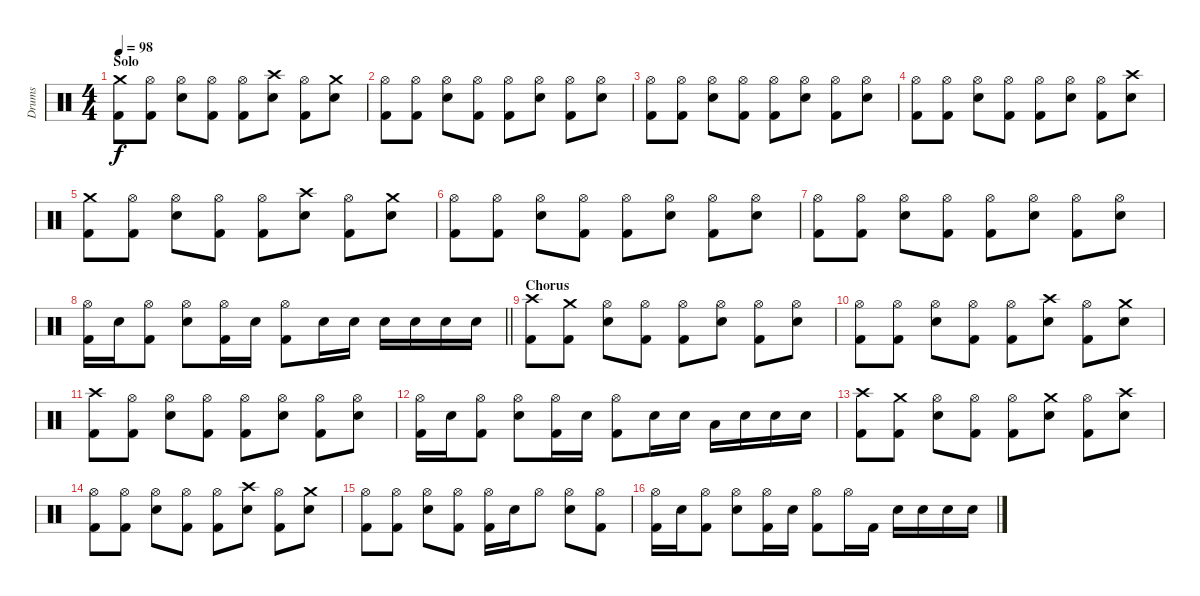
\track ("Drums" "Drums") {instrument percussion}
\staff
\articulation defaults
\ts (4 4)
\section ("" "Solo")
\tempo 98
\clef neutral
\ks c
("Crash medium (hit)" "Kick (hit) 2").8{dy f} ("Hi-Hat (open)" "Kick (hit) 2").8 ("Hi-Hat (open)" "Snare (hit) 2").8 ("Hi-Hat (open)" "Kick (hit) 2").8 ("Hi-Hat (open)" "Kick (hit) 2").8 ("Crash high (hit)" "Snare (hit) 2").8 ("Hi-Hat (open)" "Kick (hit) 2").8 ("Crash medium (hit)" "Snare (hit) 2").8 |
("Hi-Hat (open)" "Kick (hit) 2").8 ("Hi-Hat (open)" "Kick (hit) 2").8 ("Hi-Hat (open)" "Snare (hit) 2").8 ("Hi-Hat (open)" "Kick (hit) 2").8 ("Hi-Hat (open)" "Kick (hit) 2").8 ("Hi-Hat (open)" "Snare (hit) 2").8 ("Hi-Hat (open)" "Kick (hit) 2").8 ("Hi-Hat (open)" "Snare (hit) 2").8 |
("Hi-Hat (open)" "Kick (hit) 2").8 ("Hi-Hat (open)" "Kick (hit) 2").8 ("Hi-Hat (open)" "Snare (hit) 2").8 ("Hi-Hat (open)" "Kick (hit) 2").8 ("Hi-Hat (open)" "Kick (hit) 2").8 ("Hi-Hat (open)" "Snare (hit) 2").8 ("Hi-Hat (open)" "Kick (hit) 2").8 ("Hi-Hat (open)" "Snare (hit) 2").8 |
("Hi-Hat (open)" "Kick (hit) 2").8 ("Hi-Hat (open)" "Kick (hit) 2").8 ("Hi-Hat (open)" "Snare (hit) 2").8 ("Hi-Hat (open)" "Kick (hit) 2").8 ("Hi-Hat (open)" "Kick (hit) 2").8 ("Hi-Hat (open)" "Snare (hit) 2").8 ("Hi-Hat (open)" "Kick (hit) 2").8 ("Crash high (hit)" "Snare (hit) 2").8 |
("Crash medium (hit)" "Kick (hit) 2").8 ("Hi-Hat (open)" "Kick (hit) 2").8 ("Hi-Hat (open)" "Snare (hit) 2").8 ("Hi-Hat (open)" "Kick (hit) 2").8 ("Hi-Hat (open)" "Kick (hit) 2").8 ("Crash high (hit)" "Snare (hit) 2").8 ("Hi-Hat (open)" "Kick (hit) 2").8 ("Crash medium (hit)" "Snare (hit) 2").8 |
("Hi-Hat (open)" "Kick (hit) 2").8 ("Hi-Hat (open)" "Kick (hit) 2").8 ("Hi-Hat (open)" "Snare (hit) 2").8 ("Hi-Hat (open)" "Kick (hit) 2").8 ("Hi-Hat (open)" "Kick (hit) 2").8 ("Hi-Hat (open)" "Snare (hit) 2").8 ("Hi-Hat (open)" "Kick (hit) 2").8 ("Hi-Hat (open)" "Snare (hit) 2").8 |
("Hi-Hat (open)" "Kick (hit) 2").8 ("Hi-Hat (open)" "Kick (hit) 2").8 ("Hi-Hat (open)" "Snare (hit) 2").8 ("Hi-Hat (open)" "Kick (hit) 2").8 ("Hi-Hat (open)" "Kick (hit) 2").8 ("Hi-Hat (open)" "Snare (hit) 2").8 ("Hi-Hat (open)" "Kick (hit) 2").8 ("Hi-Hat (open)" "Snare (hit) 2").8 |
\barLineRight lightlight
("Hi-Hat (open)" "Kick (hit) 2").16 "Snare (hit) 2".16 ("Hi-Hat (open)" "Kick (hit) 2").8 ("Hi-Hat (open)" "Snare (hit) 2").8 ("Hi-Hat (open)" "Kick (hit) 2").16 "Snare (hit) 2".16 ("Hi-Hat (open)" "Kick (hit) 2").8 "Snare (hit) 2".16 "Snare (hit) 2".16 "Snare (hit) 2".16 "Snare (hit) 2".16 "Snare (hit) 2".16 "Snare (hit) 2".16 |
\section ("" "Chorus")
("Crash high (hit)" "Kick (hit) 2").8 ("Crash medium (hit)" "Kick (hit) 2").8 ("Hi-Hat (open)" "Snare (hit) 2").8 ("Hi-Hat (open)" "Kick (hit) 2").8 ("Hi-Hat (open)" "Kick (hit) 2").8 ("Hi-Hat (open)" "Snare (hit) 2").8 ("Hi-Hat (open)" "Kick (hit) 2").8 ("Hi-Hat (open)" "Snare (hit) 2").8 |
("Hi-Hat (open)" "Kick (hit) 2").8 ("Hi-Hat (open)" "Kick (hit) 2").8 ("Hi-Hat (open)" "Snare (hit) 2").8 ("Hi-Hat (open)" "Kick (hit) 2").8 ("Hi-Hat (open)" "Kick (hit) 2").8 ("Crash high (hit)" "Snare (hit) 2").8 ("Hi-Hat (open)" "Kick (hit) 2").8 ("Crash medium (hit)" "Snare (hit) 2").8 |
("Crash high (hit)" "Kick (hit) 2").8 ("Hi-Hat (open)" "Kick (hit) 2").8 ("Hi-Hat (open)" "Snare (hit) 2").8 ("Hi-Hat (open)" "Kick (hit) 2").8 ("Hi-Hat (open)" "Kick (hit) 2").8 ("Hi-Hat (open)" "Snare (hit) 2").8 ("Hi-Hat (open)" "Kick (hit) 2").8 ("Hi-Hat (open)" "Snare (hit) 2").8 |
("Hi-Hat (open)" "Kick (hit) 2").16 "Snare (hit) 2".16 ("Hi-Hat (open)" "Kick (hit) 2").8 ("Hi-Hat (open)" "Snare (hit) 2").8 ("Hi-Hat (open)" "Kick (hit) 2").16 "Snare (hit) 2".16 ("Hi-Hat (open)" "Kick (hit) 2").8 "Snare (hit) 2".16 "Snare (hit) 2".16 "Low Tom (hit)".16 "Snare (hit) 2".16 "Snare (hit) 2".16 "Snare (hit) 2".16 |
("Crash high (hit)" "Kick (hit) 2").8 ("Crash medium (hit)" "Kick (hit) 2").8 ("Hi-Hat (open)" "Snare (hit) 2").8 ("Hi-Hat (open)" "Kick (hit) 2").8 ("Hi-Hat (open)" "Kick (hit) 2").8 ("Crash medium (hit)" "Snare (hit) 2").8 ("Hi-Hat (open)" "Kick (hit) 2").8 ("Crash high (hit)" "Snare (hit) 2").8 |
("Hi-Hat (open)" "Kick (hit) 2").8 ("Hi-Hat (open)" "Kick (hit) 2").8 ("Hi-Hat (open)" "Snare (hit) 2").8 ("Hi-Hat (open)" "Kick (hit) 2").8 ("Hi-Hat (open)" "Kick (hit) 2").8 ("Crash high (hit)" "Snare (hit) 2").8 ("Hi-Hat (open)" "Kick (hit) 2").8 ("Crash medium (hit)" "Snare (hit) 2").8 |
("Hi-Hat (open)" "Kick (hit) 2").8 ("Hi-Hat (open)" "Kick (hit) 2").8 ("Hi-Hat (open)" "Snare (hit) 2").8 ("Hi-Hat (open)" "Kick (hit) 2").8 ("Hi-Hat (open)" "Kick (hit) 2").16 "Snare (hit) 2".16 "Hi-Hat (open)".8 ("Hi-Hat (open)" "Snare (hit) 2").8 ("Hi-Hat (open)" "Kick (hit) 2").8 |
("Hi-Hat (open)" "Kick (hit) 2").16 "Snare (hit) 2".16 ("Hi-Hat (open)" "Kick (hit) 2").8 ("Hi-Hat (open)" "Snare (hit) 2").8 ("Hi-Hat (open)" "Kick (hit) 2").16 "Snare (hit) 2".16 ("Hi-Hat (open)" "Kick (hit) 2").8 "Hi-Hat (open)".16 "Kick (hit) 2".16 "Snare (hit) 2".16 "Snare (hit) 2".16 "Snare (hit) 2".16 "Snare (hit) 2".16
